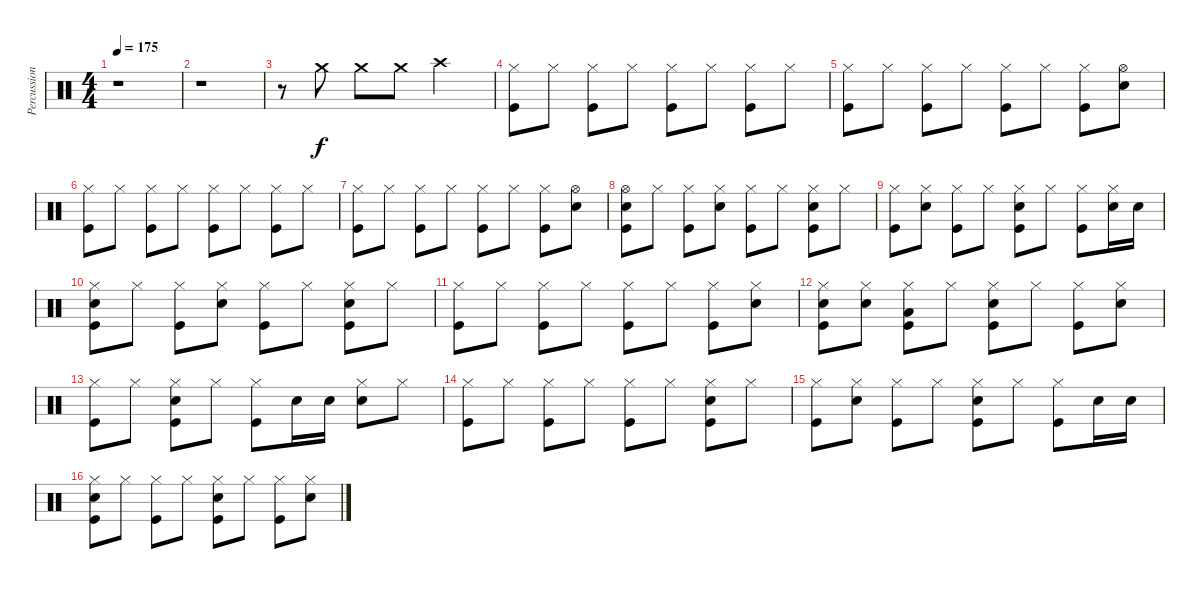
\track ("Percussions" "Percussion") {instrument percussion}
\staff {score}
\articulation defaults
\ts (4 4)
\tempo 175
\clef neutral
\ks c
r.1{dy f} |
r.1 |
r.8 "Crash medium (hit)".8 "Crash medium (hit)".8 "Crash medium (hit)".8 "Crash high (hit)".2 |
("Hi-Hat (closed)" "Kick (hit)").8 "Hi-Hat (closed)".8 ("Hi-Hat (closed)" "Kick (hit)").8 "Hi-Hat (closed)".8 ("Hi-Hat (closed)" "Kick (hit)").8 "Hi-Hat (closed)".8 ("Hi-Hat (closed)" "Kick (hit)").8 "Hi-Hat (closed)".8 |
("Hi-Hat (closed)" "Kick (hit)").8 "Hi-Hat (closed)".8 ("Hi-Hat (closed)" "Kick (hit)").8 "Hi-Hat (closed)".8 ("Hi-Hat (closed)" "Kick (hit)").8 "Hi-Hat (closed)".8 ("Hi-Hat (closed)" "Kick (hit)").8 ("Hi-Hat (open)" "Snare (hit) 2").8 |
("Hi-Hat (closed)" "Kick (hit)").8 "Hi-Hat (closed)".8 ("Hi-Hat (closed)" "Kick (hit)").8 "Hi-Hat (closed)".8 ("Hi-Hat (closed)" "Kick (hit)").8 "Hi-Hat (closed)".8 ("Hi-Hat (closed)" "Kick (hit)").8 "Hi-Hat (closed)".8 |
("Hi-Hat (closed)" "Kick (hit)").8 "Hi-Hat (closed)".8 ("Hi-Hat (closed)" "Kick (hit)").8 "Hi-Hat (closed)".8 ("Hi-Hat (closed)" "Kick (hit)").8 "Hi-Hat (closed)".8 ("Hi-Hat (closed)" "Kick (hit)").8 ("Hi-Hat (open)" "Snare (hit) 2").8 |
("Hi-Hat (open)" "Snare (hit) 2" "Kick (hit)").8 "Hi-Hat (closed)".8 ("Hi-Hat (closed)" "Kick (hit)").8 ("Hi-Hat (closed)" "Snare (hit) 2").8 ("Hi-Hat (closed)" "Kick (hit)").8 "Hi-Hat (closed)".8 ("Hi-Hat (closed)" "Snare (hit) 2" "Kick (hit)").8 "Hi-Hat (closed)".8 |
("Hi-Hat (closed)" "Kick (hit)").8 ("Hi-Hat (closed)" "Snare (hit) 2").8 ("Hi-Hat (closed)" "Kick (hit)").8 "Hi-Hat (closed)".8 ("Hi-Hat (closed)" "Snare (hit) 2" "Kick (hit)").8 "Hi-Hat (closed)".8 ("Hi-Hat (closed)" "Kick (hit)").8 ("Hi-Hat (closed)" "Snare (hit) 2").16 "Snare (hit) 2".16 |
("Hi-Hat (closed)" "Snare (hit) 2" "Kick (hit)").8 "Hi-Hat (closed)".8 ("Hi-Hat (closed)" "Kick (hit)").8 ("Hi-Hat (closed)" "Snare (hit) 2").8 ("Hi-Hat (closed)" "Kick (hit)").8 "Hi-Hat (closed)".8 ("Hi-Hat (closed)" "Snare (hit) 2" "Kick (hit)").8 "Hi-Hat (closed)".8 |
("Hi-Hat (closed)" "Kick (hit)").8 "Hi-Hat (closed)".8 ("Hi-Hat (closed)" "Kick (hit)").8 "Hi-Hat (closed)".8 ("Hi-Hat (closed)" "Kick (hit)").8 "Hi-Hat (closed)".8 ("Hi-Hat (closed)" "Kick (hit)").8 ("Hi-Hat (closed)" "Snare (hit) 2").8 |
("Hi-Hat (closed)" "Snare (hit) 2" "Kick (hit)").8 ("Hi-Hat (closed)" "Snare (hit) 2").8 ("Hi-Hat (closed)" "Low Floor Tom (hit)" "Kick (hit)").8 "Hi-Hat (closed)".8 ("Hi-Hat (closed)" "Snare (hit) 2" "Kick (hit)").8 "Hi-Hat (closed)".8 ("Hi-Hat (closed)" "Kick (hit)").8 ("Hi-Hat (closed)" "Snare (hit) 2").8 |
("Hi-Hat (closed)" "Kick (hit)").8 "Hi-Hat (closed)".8 ("Hi-Hat (closed)" "Snare (hit) 2" "Kick (hit)").8 "Hi-Hat (closed)".8 ("Hi-Hat (closed)" "Kick (hit)").8 "Snare (hit) 2".16 "Snare (hit) 2".16 ("Hi-Hat (closed)" "Snare (hit) 2").8 "Hi-Hat (closed)".8 |
("Hi-Hat (closed)" "Kick (hit)").8 "Hi-Hat (closed)".8 ("Hi-Hat (closed)" "Kick (hit)").8 "Hi-Hat (closed)".8 ("Hi-Hat (closed)" "Kick (hit)").8 "Hi-Hat (closed)".8 ("Hi-Hat (closed)" "Snare (hit) 2" "Kick (hit)").8 "Hi-Hat (closed)".8 |
("Hi-Hat (closed)" "Kick (hit)").8 ("Hi-Hat (closed)" "Snare (hit) 2").8 ("Hi-Hat (closed)" "Kick (hit)").8 "Hi-Hat (closed)".8 ("Hi-Hat (closed)" "Snare (hit) 2" "Kick (hit)").8 "Hi-Hat (closed)".8 ("Hi-Hat (closed)" "Kick (hit)").8 "Snare (hit) 2".16 "Snare (hit) 2".16 |
("Hi-Hat (closed)" "Snare (hit) 2" "Kick (hit)").8 "Hi-Hat (closed)".8 ("Hi-Hat (closed)" "Kick (hit)").8 "Hi-Hat (closed)".8 ("Hi-Hat (closed)" "Snare (hit) 2" "Kick (hit)").8 "Hi-Hat (closed)".8 ("Hi-Hat (closed)" "Kick (hit)").8 ("Hi-Hat (closed)" "Snare (hit) 2").8
